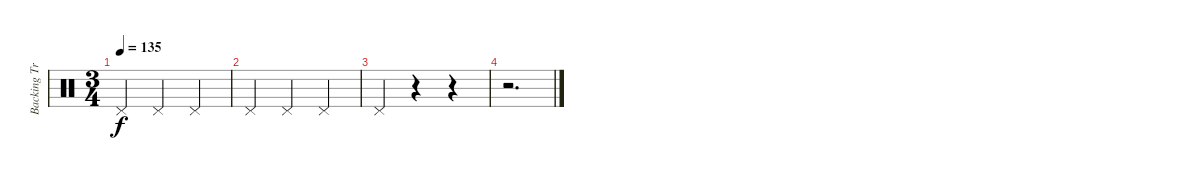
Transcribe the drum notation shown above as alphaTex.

\track ("Backing Track" "Backing Tr") {instrument percussion}
\staff {score}
\articulation defaults
\ts (3 4)
\tempo 135
\clef neutral
\ks c "Pedal Hi-Hat (hit)".4{dy f} "Pedal Hi-Hat (hit)".4 "Pedal Hi-Hat (hit)".4
|
"Pedal Hi-Hat (hit)".4 "Pedal Hi-Hat (hit)".4 "Pedal Hi-Hat (hit)".4 |
"Pedal Hi-Hat (hit)".4 r.4 r.4 |
r.2{d}
